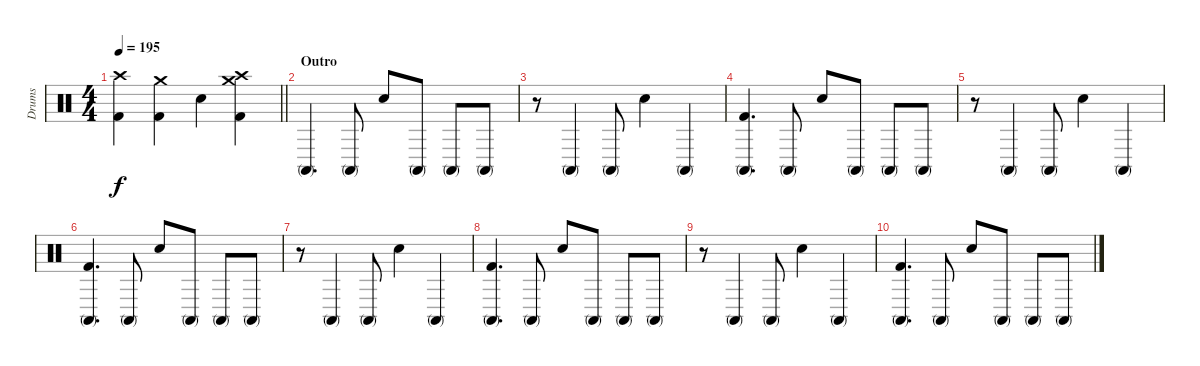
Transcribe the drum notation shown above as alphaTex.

\track ("Drums" "Drums") {instrument percussion}
\staff {score}
\articulation defaults
\ts (4 4)
\tempo 195
\clef neutral
\barLineRight lightlight
\ks c
("Crash high (hit)" "Kick (hit) 2").4{dy f} ("Crash medium (hit)" "Kick (hit) 2").4 "Snare (hit) 2".4 ("Kick (hit) 2" "Crash high (hit)" "Crash medium (hit)").4 |
\section ("" "Outro")
"Conga high (mute)".4{d} "Conga high (mute)".8 "Hand Clap (hit)".8 "Conga high (mute)".8 "Conga high (mute)".8 "Conga high (mute)".8 |
r.8 "Conga high (mute)".4 "Conga high (mute)".8 "Hand Clap (hit)".4 "Conga high (mute)".4 |
("Kick (hit) 2" "Conga high (mute)").4{d} "Conga high (mute)".8 "Hand Clap (hit)".8 "Conga high (mute)".8 "Conga high (mute)".8 "Conga high (mute)".8 |
r.8 "Conga high (mute)".4 "Conga high (mute)".8 "Hand Clap (hit)".4 "Conga high (mute)".4 |
("Kick (hit) 2" "Conga high (mute)").4{d} "Conga high (mute)".8 "Hand Clap (hit)".8 "Conga high (mute)".8 "Conga high (mute)".8 "Conga high (mute)".8 |
r.8 "Conga high (mute)".4{volume 11} "Conga high (mute)".8 "Hand Clap (hit)".4 "Conga high (mute)".4{volume 9} |
("Kick (hit) 2" "Conga high (mute)").4{d} "Conga high (mute)".8 "Hand Clap (hit)".8{volume 4} "Conga high (mute)".8 "Conga high (mute)".8 "Conga high (mute)".8 |
r.8 "Conga high (mute)".4{volume 1} "Conga high (mute)".8{volume 0} "Hand Clap (hit)".4 "Conga high (mute)".4 |
("Kick (hit) 2" "Conga high (mute)").4{d} "Conga high (mute)".8 "Hand Clap (hit)".8 "Conga high (mute)".8 "Conga high (mute)".8 "Conga high (mute)".8
